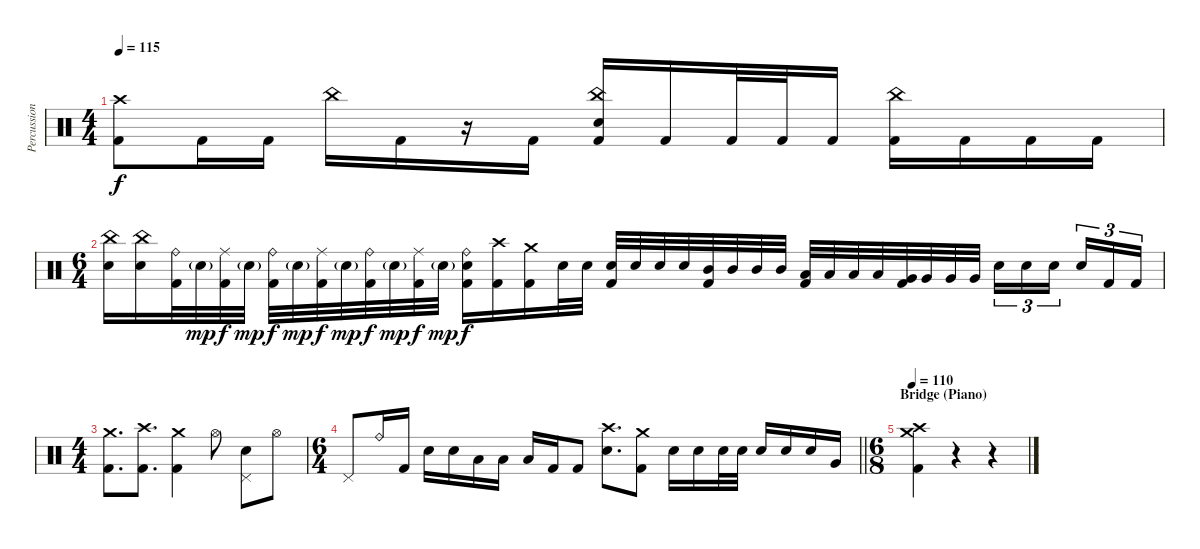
\track ("Percussion" "Percussion") {instrument percussion}
\staff {score}
\articulation defaults
\ts (4 4)
\tempo 115
\clef neutral
\ks c
("Crash high (hit)" "Kick (hit) 2").8{dy f} "Kick (hit) 2".16 "Kick (hit) 2".16 "China (hit)".16 "Kick (hit) 2".16 r.16 "Kick (hit) 2".16 ("China (hit)" "Electric Snare (hit)" "Kick (hit) 2").16 "Kick (hit) 2".16 "Kick (hit) 2".32 "Kick (hit) 2".32 "Kick (hit) 2".16 ("China (hit)" "Kick (hit) 2").16 "Kick (hit) 2".16 "Kick (hit) 2".16 "Kick (hit) 2".16 |
\ts (6 4)
("China (hit)" "Electric Snare (hit)").16 ("China (hit)" "Electric Snare (hit)").16 ("Ride (bell)" "Kick (hit) 2").32 "Electric Snare (hit)"{g}.32{dy mp} ("Ride (middle)" "Kick (hit) 2").32{dy f} "Electric Snare (hit)"{g}.32{dy mp} ("Ride (bell)" "Kick (hit) 2").32{dy f} "Electric Snare (hit)"{g}.32{dy mp} ("Ride (middle)" "Kick (hit) 2").32{dy f} "Electric Snare (hit)"{g}.32{dy mp} ("Ride (bell)" "Kick (hit) 2").32{dy f} "Electric Snare (hit)"{g}.32{dy mp} ("Ride (middle)" "Kick (hit) 2").32{dy f} "Electric Snare (hit)"{g}.32{dy mp} ("Ride (bell)" "Electric Snare (hit)" "Kick (hit) 2").16{dy f} ("Crash high (hit)" "Kick (hit) 2").16 ("Crash medium (hit)" "Kick (hit) 2").16 "Electric Snare (hit)".32 "Electric Snare (hit)".32 ("Electric Snare (hit)" "Kick (hit) 2").32 "Electric Snare (hit)".32 "Electric Snare (hit)".32 "Electric Snare (hit)".32 ("Mid Tom (hit)" "Kick (hit) 2").32 "Mid Tom (hit)".32 "Mid Tom (hit)".32 "Mid Tom (hit)".32 ("Low Tom (hit)" "Kick (hit) 2").32 "Low Tom (hit)".32 "Low Tom (hit)".32 "Low Tom (hit)".32 ("Very Low Tom (hit)" "Kick (hit) 2").32 "Very Low Tom (hit)".32 "Very Low Tom (hit)".32 "Very Low Tom (hit)".32{beam splitsecondary} "Electric Snare (hit)".16{tu (3 2)} "Electric Snare (hit)".16{tu (3 2)} "Electric Snare (hit)".16{tu (3 2) beam splitsecondary} "Electric Snare (hit)".16{tu (3 2)} "Kick (hit) 2".16{tu (3 2)} "Kick (hit) 2".16{tu (3 2)} |
\ts (4 4)
("Crash medium (hit)" "Kick (hit) 2").8{d} ("Crash high (hit)" "Kick (hit) 2").8{d} ("Crash medium (hit)" "Kick (hit) 2").4 "Hi-Hat (open)".8 ("Pedal Hi-Hat (hit)" "Electric Snare (hit)").8 "Hi-Hat (open)".8 |
\ts (6 4)
\barLineRight lightlight "Pedal Hi-Hat (hit)".8 "Ride (bell)".16 "Kick (hit) 2".16 "Electric Snare (hit)".16 "Electric Snare (hit)".16 "Low Tom (hit)".16 "Low Tom (hit)".16 "Low Floor Tom (hit)".16 "Kick (hit) 2".16 "Kick (hit) 2".8
("Crash high (hit)" "Electric Snare (hit)").8{d} ("Crash medium (hit)" "Kick (hit) 2").8 "Electric Snare (hit)".16 "Electric Snare (hit)".16 "Electric Snare (hit)".32 "Electric Snare (hit)".32 "Electric Snare (hit)".16 "Electric Snare (hit)".16 "Electric Snare (hit)".16 "Very Low Tom (hit)".16 |
\ts (6 8)
\section ("" "Bridge (Piano)")
\tempo 110
("Crash high (hit)" "Crash medium (hit)" "Kick (hit) 2").4 r.4 r.4
